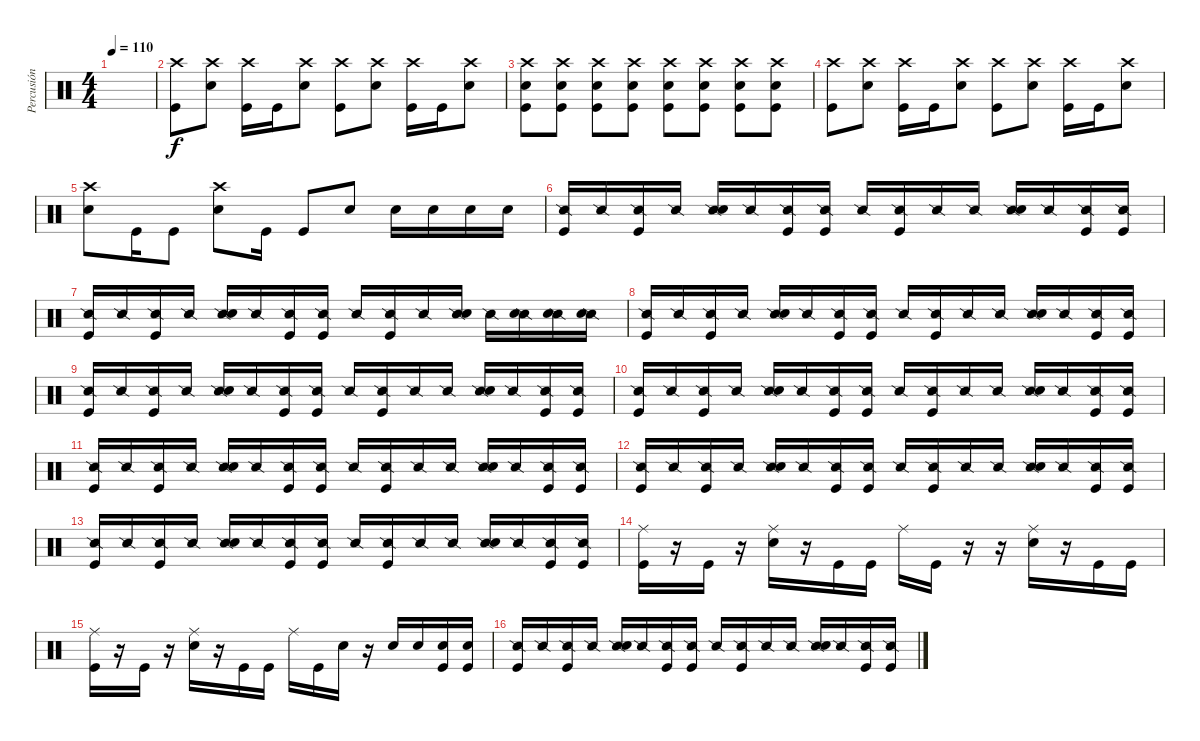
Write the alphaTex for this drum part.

\track ("Percusión" "Percusión") {instrument percussion}
\staff {score}
\articulation defaults
\ts (4 4)
\tempo 110
\clef neutral
\ks c
|
("Crash high (hit)" "Kick (hit)").8 ("Crash high (hit)" "Electric Snare (hit)").8 ("Crash high (hit)" "Kick (hit)").16 "Kick (hit)".16 ("Crash high (hit)" "Electric Snare (hit)").8 ("Crash high (hit)" "Kick (hit)").8 ("Crash high (hit)" "Electric Snare (hit)").8 ("Crash high (hit)" "Kick (hit)").16 "Kick (hit)".16 ("Crash high (hit)" "Electric Snare (hit)").8 |
("Crash high (hit)" "Electric Snare (hit)" "Kick (hit)").8 ("Crash high (hit)" "Electric Snare (hit)" "Kick (hit)").8 ("Crash high (hit)" "Electric Snare (hit)" "Kick (hit)").8 ("Crash high (hit)" "Electric Snare (hit)" "Kick (hit)").8 ("Crash high (hit)" "Electric Snare (hit)" "Kick (hit)").8 ("Crash high (hit)" "Electric Snare (hit)" "Kick (hit)").8 ("Crash high (hit)" "Electric Snare (hit)" "Kick (hit)").8 ("Crash high (hit)" "Electric Snare (hit)" "Kick (hit)").8 |
("Crash high (hit)" "Kick (hit)").8 ("Crash high (hit)" "Electric Snare (hit)").8 ("Crash high (hit)" "Kick (hit)").16 "Kick (hit)".16 ("Crash high (hit)" "Electric Snare (hit)").8 ("Crash high (hit)" "Kick (hit)").8 ("Crash high (hit)" "Electric Snare (hit)").8 ("Crash high (hit)" "Kick (hit)").16 "Kick (hit)".16 ("Crash high (hit)" "Electric Snare (hit)").8 |
("Crash high (hit)" "Electric Snare (hit)").8 "Kick (hit)".16 "Kick (hit)".8 ("Crash high (hit)" "Electric Snare (hit)").8 "Kick (hit)".16 "Kick (hit)".8 "Electric Snare (hit)".8 "Electric Snare (hit)".16 "Electric Snare (hit)".16 "Electric Snare (hit)".16 "Electric Snare (hit)".16 |
("Snare (side stick) 2" "Kick (hit)").16 "Snare (side stick) 2".16 ("Snare (side stick) 2" "Kick (hit)").16 "Snare (side stick) 2".16 ("Snare (side stick) 2" "Electric Snare (hit)").16 "Snare (side stick) 2".16 ("Snare (side stick) 2" "Kick (hit)").16 ("Snare (side stick) 2" "Kick (hit)").16 "Snare (side stick) 2".16 ("Snare (side stick) 2" "Kick (hit)").16 "Snare (side stick) 2".16 "Snare (side stick) 2".16 ("Snare (side stick) 2" "Electric Snare (hit)").16 "Snare (side stick) 2".16 ("Snare (side stick) 2" "Kick (hit)").16 ("Snare (side stick) 2" "Kick (hit)").16 |
("Snare (side stick) 2" "Kick (hit)").16 "Snare (side stick) 2".16 ("Snare (side stick) 2" "Kick (hit)").16 "Snare (side stick) 2".16 ("Snare (side stick) 2" "Electric Snare (hit)").16 "Snare (side stick) 2".16 ("Snare (side stick) 2" "Kick (hit)").16 ("Snare (side stick) 2" "Kick (hit)").16 "Snare (side stick) 2".16 ("Snare (side stick) 2" "Kick (hit)").16 "Snare (side stick) 2".16 ("Snare (side stick) 2" "Electric Snare (hit)").16 "Snare (side stick) 2".16 ("Snare (side stick) 2" "Electric Snare (hit)").16 ("Snare (side stick) 2" "Electric Snare (hit)").16 ("Snare (side stick) 2" "Electric Snare (hit)").16 |
("Snare (side stick) 2" "Kick (hit)").16 "Snare (side stick) 2".16 ("Snare (side stick) 2" "Kick (hit)").16 "Snare (side stick) 2".16 ("Snare (side stick) 2" "Electric Snare (hit)").16 "Snare (side stick) 2".16 ("Snare (side stick) 2" "Kick (hit)").16 ("Snare (side stick) 2" "Kick (hit)").16 "Snare (side stick) 2".16 ("Snare (side stick) 2" "Kick (hit)").16 "Snare (side stick) 2".16 "Snare (side stick) 2".16 ("Snare (side stick) 2" "Electric Snare (hit)").16 "Snare (side stick) 2".16 ("Snare (side stick) 2" "Kick (hit)").16 ("Snare (side stick) 2" "Kick (hit)").16 |
("Snare (side stick) 2" "Kick (hit)").16 "Snare (side stick) 2".16 ("Snare (side stick) 2" "Kick (hit)").16 "Snare (side stick) 2".16 ("Snare (side stick) 2" "Electric Snare (hit)").16 "Snare (side stick) 2".16 ("Snare (side stick) 2" "Kick (hit)").16 ("Snare (side stick) 2" "Kick (hit)").16 "Snare (side stick) 2".16 ("Snare (side stick) 2" "Kick (hit)").16 "Snare (side stick) 2".16 "Snare (side stick) 2".16 ("Snare (side stick) 2" "Electric Snare (hit)").16 "Snare (side stick) 2".16 ("Snare (side stick) 2" "Kick (hit)").16 ("Snare (side stick) 2" "Kick (hit)").16 |
("Snare (side stick) 2" "Kick (hit)").16 "Snare (side stick) 2".16 ("Snare (side stick) 2" "Kick (hit)").16 "Snare (side stick) 2".16 ("Snare (side stick) 2" "Electric Snare (hit)").16 "Snare (side stick) 2".16 ("Snare (side stick) 2" "Kick (hit)").16 ("Snare (side stick) 2" "Kick (hit)").16 "Snare (side stick) 2".16 ("Snare (side stick) 2" "Kick (hit)").16 "Snare (side stick) 2".16 "Snare (side stick) 2".16 ("Snare (side stick) 2" "Electric Snare (hit)").16 "Snare (side stick) 2".16 ("Snare (side stick) 2" "Kick (hit)").16 ("Snare (side stick) 2" "Kick (hit)").16 |
("Snare (side stick) 2" "Kick (hit)").16 "Snare (side stick) 2".16 ("Snare (side stick) 2" "Kick (hit)").16 "Snare (side stick) 2".16 ("Snare (side stick) 2" "Electric Snare (hit)").16 "Snare (side stick) 2".16 ("Snare (side stick) 2" "Kick (hit)").16 ("Snare (side stick) 2" "Kick (hit)").16 "Snare (side stick) 2".16 ("Snare (side stick) 2" "Kick (hit)").16 "Snare (side stick) 2".16 "Snare (side stick) 2".16 ("Snare (side stick) 2" "Electric Snare (hit)").16 "Snare (side stick) 2".16 ("Snare (side stick) 2" "Kick (hit)").16 ("Snare (side stick) 2" "Kick (hit)").16 |
("Snare (side stick) 2" "Kick (hit)").16 "Snare (side stick) 2".16 ("Snare (side stick) 2" "Kick (hit)").16 "Snare (side stick) 2".16 ("Snare (side stick) 2" "Electric Snare (hit)").16 "Snare (side stick) 2".16 ("Snare (side stick) 2" "Kick (hit)").16 ("Snare (side stick) 2" "Kick (hit)").16 "Snare (side stick) 2".16 ("Snare (side stick) 2" "Kick (hit)").16 "Snare (side stick) 2".16 "Snare (side stick) 2".16 ("Snare (side stick) 2" "Electric Snare (hit)").16 "Snare (side stick) 2".16 ("Snare (side stick) 2" "Kick (hit)").16 ("Snare (side stick) 2" "Kick (hit)").16 |
("Snare (side stick) 2" "Kick (hit)").16 "Snare (side stick) 2".16 ("Snare (side stick) 2" "Kick (hit)").16 "Snare (side stick) 2".16 ("Snare (side stick) 2" "Electric Snare (hit)").16 "Snare (side stick) 2".16 ("Snare (side stick) 2" "Kick (hit)").16 ("Snare (side stick) 2" "Kick (hit)").16 "Snare (side stick) 2".16 ("Snare (side stick) 2" "Kick (hit)").16 "Snare (side stick) 2".16 "Snare (side stick) 2".16 ("Snare (side stick) 2" "Electric Snare (hit)").16 "Snare (side stick) 2".16 ("Snare (side stick) 2" "Kick (hit)").16 ("Snare (side stick) 2" "Kick (hit)").16 |
("Ride (middle)" "Kick (hit)").16 r.16 "Kick (hit)".16 r.16 ("Ride (middle)" "Electric Snare (hit)").16 r.16 "Kick (hit)".16 "Kick (hit)".16 "Ride (middle)".16 "Kick (hit)".16 r.16 r.16 ("Ride (middle)" "Electric Snare (hit)").16 r.16 "Kick (hit)".16 "Kick (hit)".16 |
("Ride (middle)" "Kick (hit)").16 r.16 "Kick (hit)".16 r.16 ("Ride (middle)" "Electric Snare (hit)").16 r.16 "Kick (hit)".16 "Kick (hit)".16 "Ride (middle)".16 "Kick (hit)".16 "Electric Snare (hit)".16 r.16 "Electric Snare (hit)".16 "Electric Snare (hit)".16 ("Electric Snare (hit)" "Kick (hit)").16 ("Electric Snare (hit)" "Kick (hit)").16 |
("Snare (side stick) 2" "Kick (hit)").16 "Snare (side stick) 2".16 ("Snare (side stick) 2" "Kick (hit)").16 "Snare (side stick) 2".16 ("Snare (side stick) 2" "Electric Snare (hit)").16 "Snare (side stick) 2".16 ("Snare (side stick) 2" "Kick (hit)").16 ("Snare (side stick) 2" "Kick (hit)").16 "Snare (side stick) 2".16 ("Snare (side stick) 2" "Kick (hit)").16 "Snare (side stick) 2".16 "Snare (side stick) 2".16 ("Snare (side stick) 2" "Electric Snare (hit)").16 "Snare (side stick) 2".16 ("Snare (side stick) 2" "Kick (hit)").16 ("Snare (side stick) 2" "Kick (hit)").16
